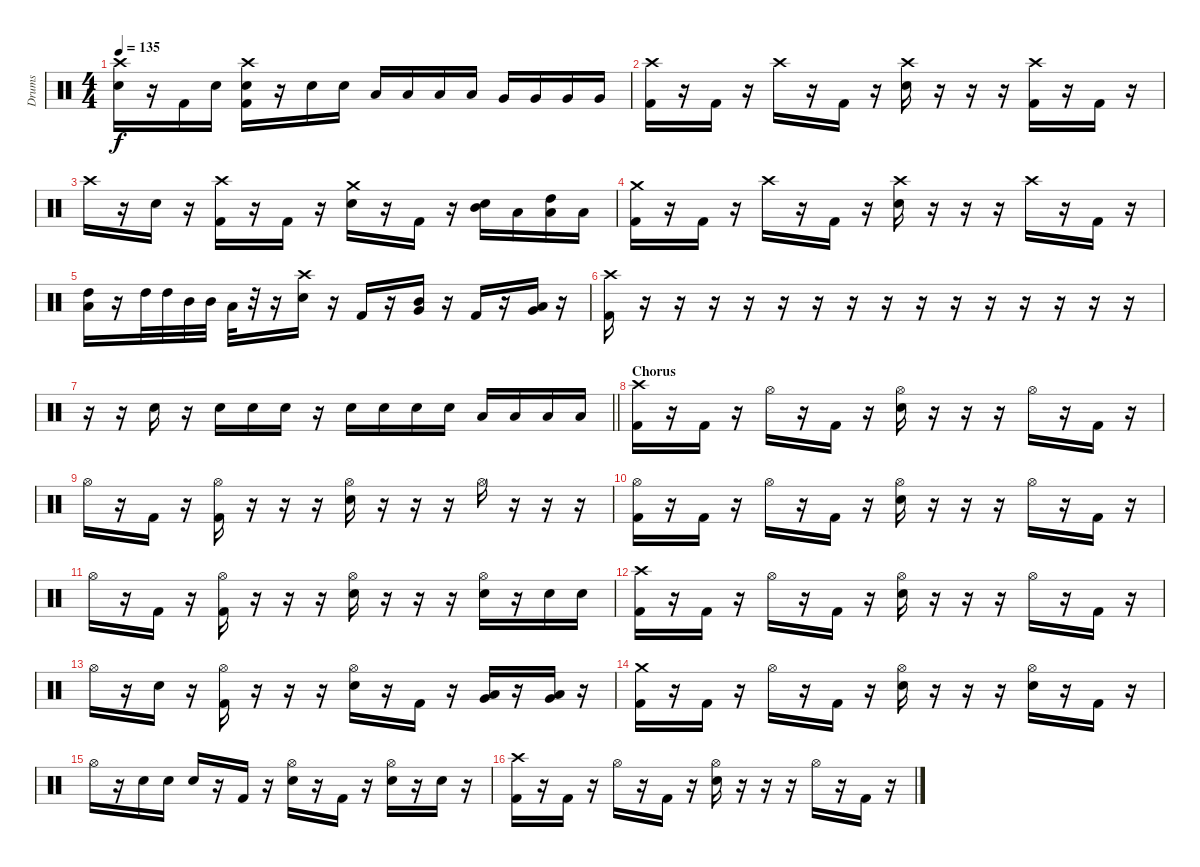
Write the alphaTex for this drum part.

\track ("Drums" "Drums") {instrument percussion}
\staff {score}
\articulation defaults
\ts (4 4)
\tempo 135
\clef neutral
\ks c
("Crash high (hit)" "Snare (hit) 2").16{dy f} r.16 "Kick (hit) 2".16 "Snare (hit) 2".16 ("Crash high (hit)" "Snare (hit) 2" "Kick (hit) 2").16 r.16 "Snare (hit) 2".16 "Snare (hit) 2".16 "Low Tom (hit)".16 "Low Tom (hit)".16 "Low Tom (hit)".16 "Low Tom (hit)".16 "Very Low Tom (hit)".16 "Very Low Tom (hit)".16 "Very Low Tom (hit)".16 "Very Low Tom (hit)".16 |
("Crash high (hit)" "Kick (hit) 2").16 r.16 "Kick (hit) 2".16 r.16 "Crash high (hit)".16 r.16 "Kick (hit) 2".16 r.16 ("Crash high (hit)" "Snare (hit) 2").16 r.16 r.16 r.16 ("Crash high (hit)" "Kick (hit) 2").16 r.16 "Kick (hit) 2".16 r.16 |
"Crash high (hit)".16 r.16 "Snare (hit) 2".16 r.16 ("Crash high (hit)" "Kick (hit) 2").16 r.16 "Kick (hit) 2".16 r.16 ("Crash medium (hit)" "Snare (hit) 2").16 r.16 "Kick (hit) 2".16 r.16 ("Mid Tom (hit)" "Snare (hit) 2").16 "Low Tom (hit)".16 ("High Tom (hit)" "Low Tom (hit)").16 "Low Tom (hit)".16 |
("Crash medium (hit)" "Kick (hit) 2").16 r.16 "Kick (hit) 2".16 r.16 "Crash high (hit)".16 r.16 "Kick (hit) 2".16 r.16 ("Crash high (hit)" "Snare (hit) 2").16 r.16 r.16 r.16 "Crash high (hit)".16 r.16 "Kick (hit) 2".16 r.16 |
("High Tom (hit)" "Low Tom (hit)").16 r.16 "High Tom (hit)".32 "High Tom (hit)".32 "Mid Tom (hit)".32 "Mid Tom (hit)".32 "Low Tom (hit)".32 r.32 r.16 ("Crash high (hit)" "Snare (hit) 2").16 r.16 "Kick (hit) 2".16 r.16 ("Mid Tom (hit)" "Very Low Tom (hit)").16 r.16 "Kick (hit) 2".16 r.16 ("Low Tom (hit)" "Very Low Tom (hit)").16 r.16 |
("Crash high (hit)" "Kick (hit) 2").16 r.16 r.16 r.16 r.16 r.16 r.16 r.16 r.16 r.16 r.16 r.16 r.16 r.16 r.16 r.16 |
\barLineRight lightlight
r.16 r.16 "Snare (hit) 2".16 r.16 "Snare (hit) 2".16 "Snare (hit) 2".16 "Snare (hit) 2".16 r.16 "Snare (hit) 2".16 "Snare (hit) 2".16 "Snare (hit) 2".16 "Snare (hit) 2".16 "Low Tom (hit)".16 "Low Tom (hit)".16 "Low Tom (hit)".16 "Low Tom (hit)".16 |
\section ("" "Chorus")
("Crash high (hit)" "Kick (hit) 2").16 r.16 "Kick (hit) 2".16 r.16 "Hi-Hat (open)".16 r.16 "Kick (hit) 2".16 r.16 ("Hi-Hat (open)" "Snare (hit) 2").16 r.16 r.16 r.16 "Hi-Hat (open)".16 r.16 "Kick (hit) 2".16 r.16 |
"Hi-Hat (open)".16 r.16 "Kick (hit) 2".16 r.16 ("Hi-Hat (open)" "Kick (hit) 2").16 r.16 r.16 r.16 ("Hi-Hat (open)" "Snare (hit) 2").16 r.16 r.16 r.16 "Hi-Hat (open)".16 r.16 r.16 r.16 |
("Hi-Hat (open)" "Kick (hit) 2").16 r.16 "Kick (hit) 2".16 r.16 "Hi-Hat (open)".16 r.16 "Kick (hit) 2".16 r.16 ("Hi-Hat (open)" "Snare (hit) 2").16 r.16 r.16 r.16 "Hi-Hat (open)".16 r.16 "Kick (hit) 2".16 r.16 |
"Hi-Hat (open)".16 r.16 "Kick (hit) 2".16 r.16 ("Hi-Hat (open)" "Kick (hit) 2").16 r.16 r.16 r.16 ("Hi-Hat (open)" "Snare (hit) 2").16 r.16 r.16 r.16 ("Hi-Hat (open)" "Snare (hit) 2").16 r.16 "Snare (hit) 2".16 "Snare (hit) 2".16 |
("Crash high (hit)" "Kick (hit) 2").16 r.16 "Kick (hit) 2".16 r.16 "Hi-Hat (open)".16 r.16 "Kick (hit) 2".16 r.16 ("Hi-Hat (open)" "Snare (hit) 2").16 r.16 r.16 r.16 "Hi-Hat (open)".16 r.16 "Kick (hit) 2".16 r.16 |
"Hi-Hat (open)".16 r.16 "Snare (hit) 2".16 r.16 ("Hi-Hat (open)" "Kick (hit) 2").16 r.16 r.16 r.16 ("Hi-Hat (open)" "Snare (hit) 2").16 r.16 "Kick (hit) 2".16 r.16 ("Low Tom (hit)" "Very Low Tom (hit)").16 r.16 ("Low Tom (hit)" "Very Low Tom (hit)").16 r.16 |
("Crash medium (hit)" "Kick (hit) 2").16 r.16 "Kick (hit) 2".16 r.16 "Hi-Hat (open)".16 r.16 "Kick (hit) 2".16 r.16 ("Hi-Hat (open)" "Snare (hit) 2").16 r.16 r.16 r.16 ("Hi-Hat (open)" "Snare (hit) 2").16 r.16 "Kick (hit) 2".16 r.16 |
"Hi-Hat (open)".16 r.16 "Snare (hit) 2".16 "Snare (hit) 2".16 "Snare (hit) 2".16 r.16 "Kick (hit) 2".16 r.16 ("Hi-Hat (open)" "Snare (hit) 2").16 r.16 "Kick (hit) 2".16 r.16 ("Hi-Hat (open)" "Snare (hit) 2").16 r.16 "Snare (hit) 2".16 r.16 |
("Crash high (hit)" "Kick (hit) 2").16 r.16 "Kick (hit) 2".16 r.16 "Hi-Hat (open)".16 r.16 "Kick (hit) 2".16 r.16 ("Hi-Hat (open)" "Snare (hit) 2").16 r.16 r.16 r.16 "Hi-Hat (open)".16 r.16 "Kick (hit) 2".16 r.16
